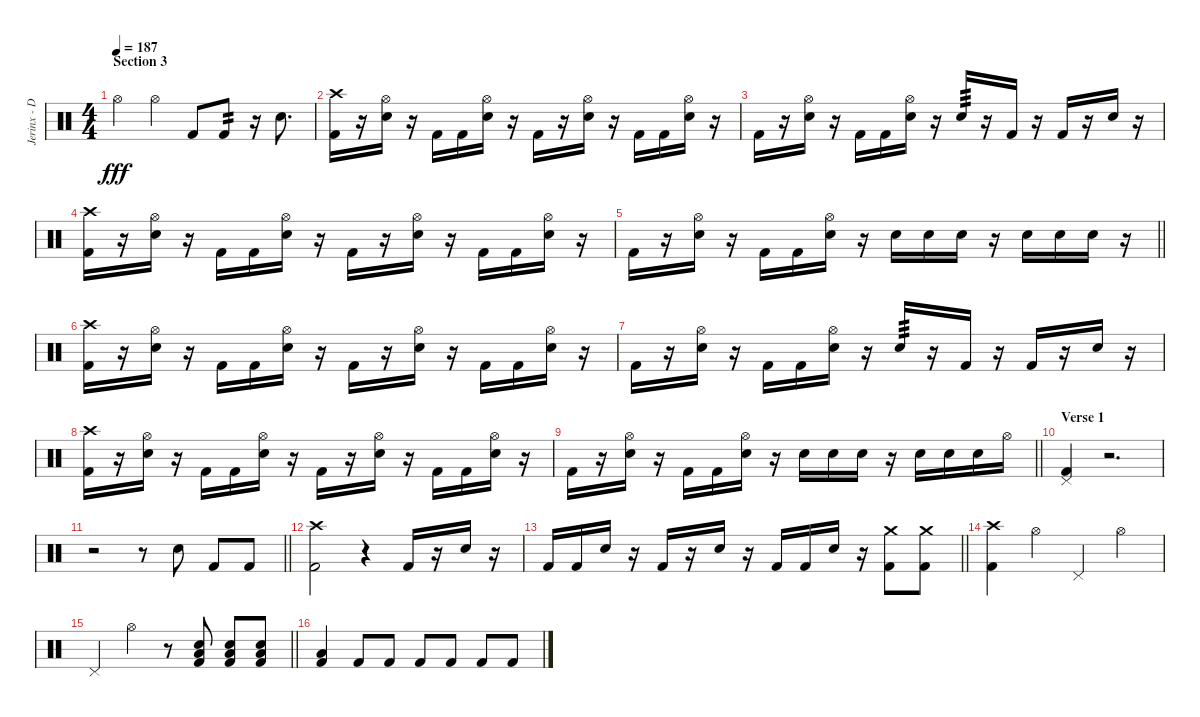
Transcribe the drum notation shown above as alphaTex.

\track ("Jerinx - Drum" "Jerinx - D") {instrument percussion}
\staff {score}
\articulation defaults
\ts (4 4)
\section ("" "Section 3")
\tempo 187
\clef neutral
\ks c "Hi-Hat (open)".4{dy fff} "Hi-Hat (open)".4 "Kick (hit) 2".8 "Kick (hit) 2".8{tp 2}
r.16 "Snare (hit) 2".8{d} |
("Kick (hit) 2" "Crash high (hit)").16 r.16 ("Hi-Hat (open)" "Snare (hit) 2").16 r.16 "Kick (hit) 2".16 "Kick (hit) 2".16 ("Hi-Hat (open)" "Snare (hit) 2").16 r.16 "Kick (hit) 2".16 r.16 ("Hi-Hat (open)" "Snare (hit) 2").16 r.16 "Kick (hit) 2".16 "Kick (hit) 2".16 ("Hi-Hat (open)" "Snare (hit) 2").16 r.16 |
"Kick (hit) 2".16 r.16 ("Hi-Hat (open)" "Snare (hit) 2").16 r.16 "Kick (hit) 2".16 "Kick (hit) 2".16 ("Hi-Hat (open)" "Snare (hit) 2").16 r.16 "Snare (hit) 2".16{tp 3} r.16 "Kick (hit) 2".16 r.16 "Kick (hit) 2".16 r.16 "Snare (hit) 2".16 r.16 |
("Kick (hit) 2" "Crash high (hit)").16 r.16 ("Hi-Hat (open)" "Snare (hit) 2").16 r.16 "Kick (hit) 2".16 "Kick (hit) 2".16 ("Hi-Hat (open)" "Snare (hit) 2").16 r.16 "Kick (hit) 2".16 r.16 ("Hi-Hat (open)" "Snare (hit) 2").16 r.16 "Kick (hit) 2".16 "Kick (hit) 2".16 ("Hi-Hat (open)" "Snare (hit) 2").16 r.16 |
\barLineRight lightlight "Kick (hit) 2".16
r.16 ("Hi-Hat (open)" "Snare (hit) 2").16 r.16 "Kick (hit) 2".16 "Kick (hit) 2".16 ("Hi-Hat (open)" "Snare (hit) 2").16 r.16 "Snare (hit) 2".16 "Snare (hit) 2".16 "Snare (hit) 2".16 r.16 "Snare (hit) 2".16 "Snare (hit) 2".16 "Snare (hit) 2".16 r.16 |
("Kick (hit) 2" "Crash high (hit)").16 r.16 ("Hi-Hat (open)" "Snare (hit) 2").16 r.16 "Kick (hit) 2".16 "Kick (hit) 2".16 ("Hi-Hat (open)" "Snare (hit) 2").16 r.16 "Kick (hit) 2".16 r.16 ("Hi-Hat (open)" "Snare (hit) 2").16 r.16 "Kick (hit) 2".16 "Kick (hit) 2".16 ("Hi-Hat (open)" "Snare (hit) 2").16 r.16 |
"Kick (hit) 2".16 r.16 ("Hi-Hat (open)" "Snare (hit) 2").16 r.16 "Kick (hit) 2".16 "Kick (hit) 2".16 ("Hi-Hat (open)" "Snare (hit) 2").16 r.16 "Snare (hit) 2".16{tp 3} r.16 "Kick (hit) 2".16 r.16 "Kick (hit) 2".16 r.16 "Snare (hit) 2".16 r.16 |
("Kick (hit) 2" "Crash high (hit)").16 r.16 ("Hi-Hat (open)" "Snare (hit) 2").16 r.16 "Kick (hit) 2".16 "Kick (hit) 2".16 ("Hi-Hat (open)" "Snare (hit) 2").16 r.16 "Kick (hit) 2".16 r.16 ("Hi-Hat (open)" "Snare (hit) 2").16 r.16 "Kick (hit) 2".16 "Kick (hit) 2".16 ("Hi-Hat (open)" "Snare (hit) 2").16 r.16 |
\barLineRight lightlight "Kick (hit) 2".16
r.16 ("Hi-Hat (open)" "Snare (hit) 2").16 r.16 "Kick (hit) 2".16 "Kick (hit) 2".16 ("Hi-Hat (open)" "Snare (hit) 2").16 r.16 "Snare (hit) 2".16 "Snare (hit) 2".16 "Snare (hit) 2".16 r.16 "Snare (hit) 2".16 "Snare (hit) 2".16 "Snare (hit) 2".16 "Hi-Hat (open)".16 |
\section ("" "Verse 1")
("Pedal Hi-Hat (hit)" "Kick (hit) 2").4 r.2{d} |
\barLineRight lightlight
r.2 r.8 "Snare (hit) 2".8 "Kick (hit) 2".8 "Kick (hit) 2".8 |
("Kick (hit) 2" "Crash high (hit)").2 r.4 "Kick (hit) 2".16 r.16 "Snare (hit) 2".16 r.16 |
\barLineRight lightlight "Kick (hit) 2".16 "Kick (hit) 2".16 "Snare (hit) 2".16
r.16 "Kick (hit) 2".16 r.16 "Snare (hit) 2".16 r.16 "Kick (hit) 2".16 "Kick (hit) 2".16 "Snare (hit) 2".16 r.16 ("Kick (hit) 2" "Crash medium (hit)").8 ("Kick (hit) 2" "Crash medium (hit)").8 |
("Kick (hit) 2" "Crash high (hit)").4 "Hi-Hat (open)".4 "Pedal Hi-Hat (hit)".4 "Hi-Hat (open)".4 |
\barLineRight lightlight "Pedal Hi-Hat (hit)".4 "Hi-Hat (open)".4
r.8 ("Snare (hit) 2" "Kick (hit) 2" "Low Floor Tom (hit)").8 ("Snare (hit) 2" "Kick (hit) 2" "Low Floor Tom (hit)").8 ("Snare (hit) 2" "Kick (hit) 2" "Low Floor Tom (hit)").8 |
("Kick (hit) 2" "Low Floor Tom (hit)").4 "Kick (hit) 2".8 "Kick (hit) 2".8 "Kick (hit) 2".8 "Kick (hit) 2".8 "Kick (hit) 2".8 "Kick (hit) 2".8
